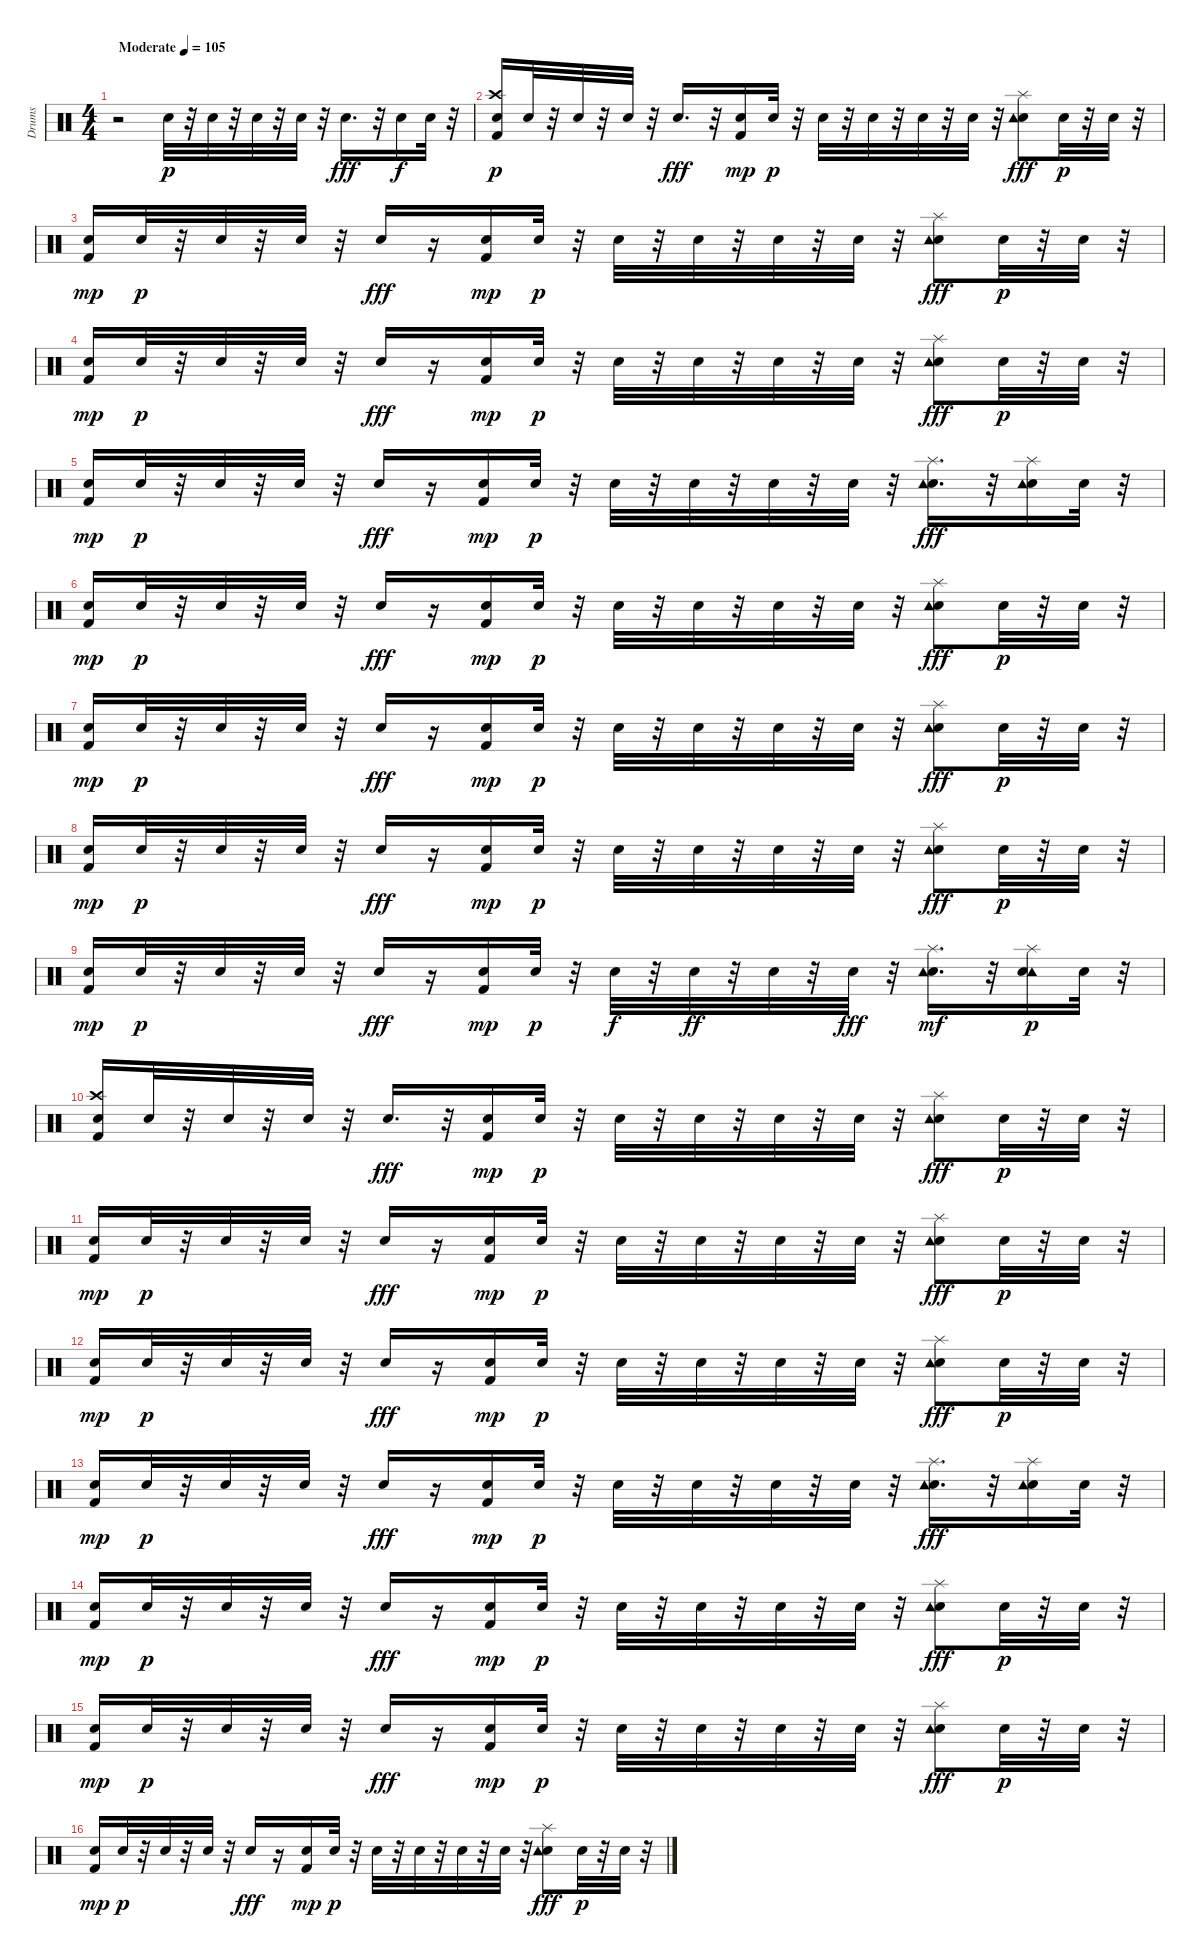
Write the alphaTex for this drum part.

\track ("Drums" "Drums") {instrument percussion}
\staff {score}
\articulation defaults
\ts (4 4)
\tempo (105 "Moderate")
\clef neutral
\ks c
r.2{dy p} "Snare (hit) 2".32{volume 11} r.32 "Snare (hit) 2".32 r.32 "Snare (hit) 2".32 r.32 "Snare (hit) 2".32 r.32 "Snare (hit) 2".16{d dy fff} r.32 "Snare (hit) 2".16{dy f} "Snare (hit) 2".32 r.32 |
("Crash high (hit)" "Kick (hit) 2" "Snare (hit) 2").16{dy p} "Snare (hit) 2".32 r.32 "Snare (hit) 2".32 r.32 "Snare (hit) 2".32 r.32 "Snare (hit) 2".16{d dy fff} r.32 ("Snare (hit) 2" "Kick (hit) 2").16{dy mp} "Snare (hit) 2".32{dy p} r.32 "Snare (hit) 2".32 r.32 "Snare (hit) 2".32 r.32 "Snare (hit) 2".32 r.32 "Snare (hit) 2".32 r.32 ("Snare (hit) 2" "Splash (hit)" "Tambourine (hit)").8{dy fff} "Snare (hit) 2".32{dy p} r.32 "Snare (hit) 2".32 r.32 |
("Snare (hit) 2" "Kick (hit) 2").16{dy mp} "Snare (hit) 2".32{dy p} r.32 "Snare (hit) 2".32 r.32 "Snare (hit) 2".32 r.32 "Snare (hit) 2".16{dy fff} r.16 ("Snare (hit) 2" "Kick (hit) 2").16{dy mp} "Snare (hit) 2".32{dy p} r.32 "Snare (hit) 2".32 r.32 "Snare (hit) 2".32 r.32 "Snare (hit) 2".32 r.32 "Snare (hit) 2".32 r.32 ("Snare (hit) 2" "Splash (hit)" "Tambourine (hit)").8{dy fff} "Snare (hit) 2".32{dy p} r.32 "Snare (hit) 2".32 r.32 |
("Snare (hit) 2" "Kick (hit) 2").16{dy mp} "Snare (hit) 2".32{dy p} r.32 "Snare (hit) 2".32 r.32 "Snare (hit) 2".32 r.32 "Snare (hit) 2".16{dy fff} r.16 ("Snare (hit) 2" "Kick (hit) 2").16{dy mp} "Snare (hit) 2".32{dy p} r.32 "Snare (hit) 2".32 r.32 "Snare (hit) 2".32 r.32 "Snare (hit) 2".32 r.32 "Snare (hit) 2".32 r.32 ("Snare (hit) 2" "Splash (hit)" "Tambourine (hit)").8{dy fff} "Snare (hit) 2".32{dy p} r.32 "Snare (hit) 2".32 r.32 |
("Snare (hit) 2" "Kick (hit) 2").16{dy mp} "Snare (hit) 2".32{dy p} r.32 "Snare (hit) 2".32 r.32 "Snare (hit) 2".32 r.32 "Snare (hit) 2".16{dy fff} r.16 ("Snare (hit) 2" "Kick (hit) 2").16{dy mp} "Snare (hit) 2".32{dy p} r.32 "Snare (hit) 2".32 r.32 "Snare (hit) 2".32 r.32 "Snare (hit) 2".32 r.32 "Snare (hit) 2".32 r.32 ("Snare (hit) 2" "Splash (hit)" "Tambourine (hit)").16{d dy fff} r.32 ("Snare (hit) 2" "Splash (hit)" "Tambourine (hit)").16 "Snare (hit) 2".32 r.32 |
("Snare (hit) 2" "Kick (hit) 2").16{dy mp} "Snare (hit) 2".32{dy p} r.32 "Snare (hit) 2".32 r.32 "Snare (hit) 2".32 r.32 "Snare (hit) 2".16{dy fff} r.16 ("Snare (hit) 2" "Kick (hit) 2").16{dy mp} "Snare (hit) 2".32{dy p} r.32 "Snare (hit) 2".32 r.32 "Snare (hit) 2".32 r.32 "Snare (hit) 2".32 r.32 "Snare (hit) 2".32 r.32 ("Snare (hit) 2" "Splash (hit)" "Tambourine (hit)").8{dy fff} "Snare (hit) 2".32{dy p} r.32 "Snare (hit) 2".32 r.32 |
("Snare (hit) 2" "Kick (hit) 2").16{dy mp} "Snare (hit) 2".32{dy p} r.32 "Snare (hit) 2".32 r.32 "Snare (hit) 2".32 r.32 "Snare (hit) 2".16{dy fff} r.16 ("Snare (hit) 2" "Kick (hit) 2").16{dy mp} "Snare (hit) 2".32{dy p} r.32 "Snare (hit) 2".32 r.32 "Snare (hit) 2".32 r.32 "Snare (hit) 2".32 r.32 "Snare (hit) 2".32 r.32 ("Snare (hit) 2" "Splash (hit)" "Tambourine (hit)").8{dy fff} "Snare (hit) 2".32{dy p} r.32 "Snare (hit) 2".32 r.32 |
("Snare (hit) 2" "Kick (hit) 2").16{dy mp} "Snare (hit) 2".32{dy p} r.32 "Snare (hit) 2".32 r.32 "Snare (hit) 2".32 r.32 "Snare (hit) 2".16{dy fff} r.16 ("Snare (hit) 2" "Kick (hit) 2").16{dy mp} "Snare (hit) 2".32{dy p} r.32 "Snare (hit) 2".32 r.32 "Snare (hit) 2".32 r.32 "Snare (hit) 2".32 r.32 "Snare (hit) 2".32 r.32 ("Snare (hit) 2" "Splash (hit)" "Tambourine (hit)").8{dy fff} "Snare (hit) 2".32{dy p} r.32 "Snare (hit) 2".32 r.32 |
("Snare (hit) 2" "Kick (hit) 2").16{dy mp} "Snare (hit) 2".32{dy p} r.32 "Snare (hit) 2".32 r.32 "Snare (hit) 2".32 r.32 "Snare (hit) 2".16{dy fff} r.16 ("Snare (hit) 2" "Kick (hit) 2").16{dy mp} "Snare (hit) 2".32{dy p} r.32 "Snare (hit) 2".32{dy f} r.32 "Snare (hit) 2".32{dy ff} r.32 "Snare (hit) 2".32 r.32 "Snare (hit) 2".32{dy fff} r.32 ("Snare (hit) 2" "Splash (hit)" "Tambourine (hit)").16{d dy mf} r.32 ("Tambourine (hit)" "Splash (hit)" "Snare (hit) 2").16{dy p} "Snare (hit) 2".32 r.32 |
("Crash high (hit)" "Kick (hit) 2" "Snare (hit) 2").16 "Snare (hit) 2".32 r.32 "Snare (hit) 2".32 r.32 "Snare (hit) 2".32 r.32 "Snare (hit) 2".16{d dy fff} r.32 ("Snare (hit) 2" "Kick (hit) 2").16{dy mp} "Snare (hit) 2".32{dy p} r.32 "Snare (hit) 2".32 r.32 "Snare (hit) 2".32 r.32 "Snare (hit) 2".32 r.32 "Snare (hit) 2".32 r.32 ("Snare (hit) 2" "Splash (hit)" "Tambourine (hit)").8{dy fff} "Snare (hit) 2".32{dy p} r.32 "Snare (hit) 2".32 r.32 |
("Snare (hit) 2" "Kick (hit) 2").16{dy mp} "Snare (hit) 2".32{dy p} r.32 "Snare (hit) 2".32 r.32 "Snare (hit) 2".32 r.32 "Snare (hit) 2".16{dy fff} r.16 ("Snare (hit) 2" "Kick (hit) 2").16{dy mp} "Snare (hit) 2".32{dy p} r.32 "Snare (hit) 2".32 r.32 "Snare (hit) 2".32 r.32 "Snare (hit) 2".32 r.32 "Snare (hit) 2".32 r.32 ("Snare (hit) 2" "Splash (hit)" "Tambourine (hit)").8{dy fff} "Snare (hit) 2".32{dy p} r.32 "Snare (hit) 2".32 r.32 |
("Snare (hit) 2" "Kick (hit) 2").16{dy mp} "Snare (hit) 2".32{dy p} r.32 "Snare (hit) 2".32 r.32 "Snare (hit) 2".32 r.32 "Snare (hit) 2".16{dy fff} r.16 ("Snare (hit) 2" "Kick (hit) 2").16{dy mp} "Snare (hit) 2".32{dy p} r.32 "Snare (hit) 2".32 r.32 "Snare (hit) 2".32 r.32 "Snare (hit) 2".32 r.32 "Snare (hit) 2".32 r.32 ("Snare (hit) 2" "Splash (hit)" "Tambourine (hit)").8{dy fff} "Snare (hit) 2".32{dy p} r.32 "Snare (hit) 2".32 r.32 |
("Snare (hit) 2" "Kick (hit) 2").16{dy mp} "Snare (hit) 2".32{dy p} r.32 "Snare (hit) 2".32 r.32 "Snare (hit) 2".32 r.32 "Snare (hit) 2".16{dy fff} r.16 ("Snare (hit) 2" "Kick (hit) 2").16{dy mp} "Snare (hit) 2".32{dy p} r.32 "Snare (hit) 2".32 r.32 "Snare (hit) 2".32 r.32 "Snare (hit) 2".32 r.32 "Snare (hit) 2".32 r.32 ("Snare (hit) 2" "Splash (hit)" "Tambourine (hit)").16{d dy fff} r.32 ("Snare (hit) 2" "Splash (hit)" "Tambourine (hit)").16 "Snare (hit) 2".32 r.32 |
("Snare (hit) 2" "Kick (hit) 2").16{dy mp} "Snare (hit) 2".32{dy p} r.32 "Snare (hit) 2".32 r.32 "Snare (hit) 2".32 r.32 "Snare (hit) 2".16{dy fff} r.16 ("Snare (hit) 2" "Kick (hit) 2").16{dy mp} "Snare (hit) 2".32{dy p} r.32 "Snare (hit) 2".32 r.32 "Snare (hit) 2".32 r.32 "Snare (hit) 2".32 r.32 "Snare (hit) 2".32 r.32 ("Snare (hit) 2" "Splash (hit)" "Tambourine (hit)").8{dy fff} "Snare (hit) 2".32{dy p} r.32 "Snare (hit) 2".32 r.32 |
("Snare (hit) 2" "Kick (hit) 2").16{dy mp} "Snare (hit) 2".32{dy p} r.32 "Snare (hit) 2".32 r.32 "Snare (hit) 2".32 r.32 "Snare (hit) 2".16{dy fff} r.16 ("Snare (hit) 2" "Kick (hit) 2").16{dy mp} "Snare (hit) 2".32{dy p} r.32 "Snare (hit) 2".32 r.32 "Snare (hit) 2".32 r.32 "Snare (hit) 2".32 r.32 "Snare (hit) 2".32 r.32 ("Snare (hit) 2" "Splash (hit)" "Tambourine (hit)").8{dy fff} "Snare (hit) 2".32{dy p} r.32 "Snare (hit) 2".32 r.32 |
("Snare (hit) 2" "Kick (hit) 2").16{dy mp} "Snare (hit) 2".32{dy p} r.32 "Snare (hit) 2".32 r.32 "Snare (hit) 2".32 r.32 "Snare (hit) 2".16{dy fff} r.16 ("Snare (hit) 2" "Kick (hit) 2").16{dy mp} "Snare (hit) 2".32{dy p} r.32 "Snare (hit) 2".32 r.32 "Snare (hit) 2".32 r.32 "Snare (hit) 2".32 r.32 "Snare (hit) 2".32 r.32 ("Snare (hit) 2" "Splash (hit)" "Tambourine (hit)").8{dy fff} "Snare (hit) 2".32{dy p} r.32 "Snare (hit) 2".32 r.32
